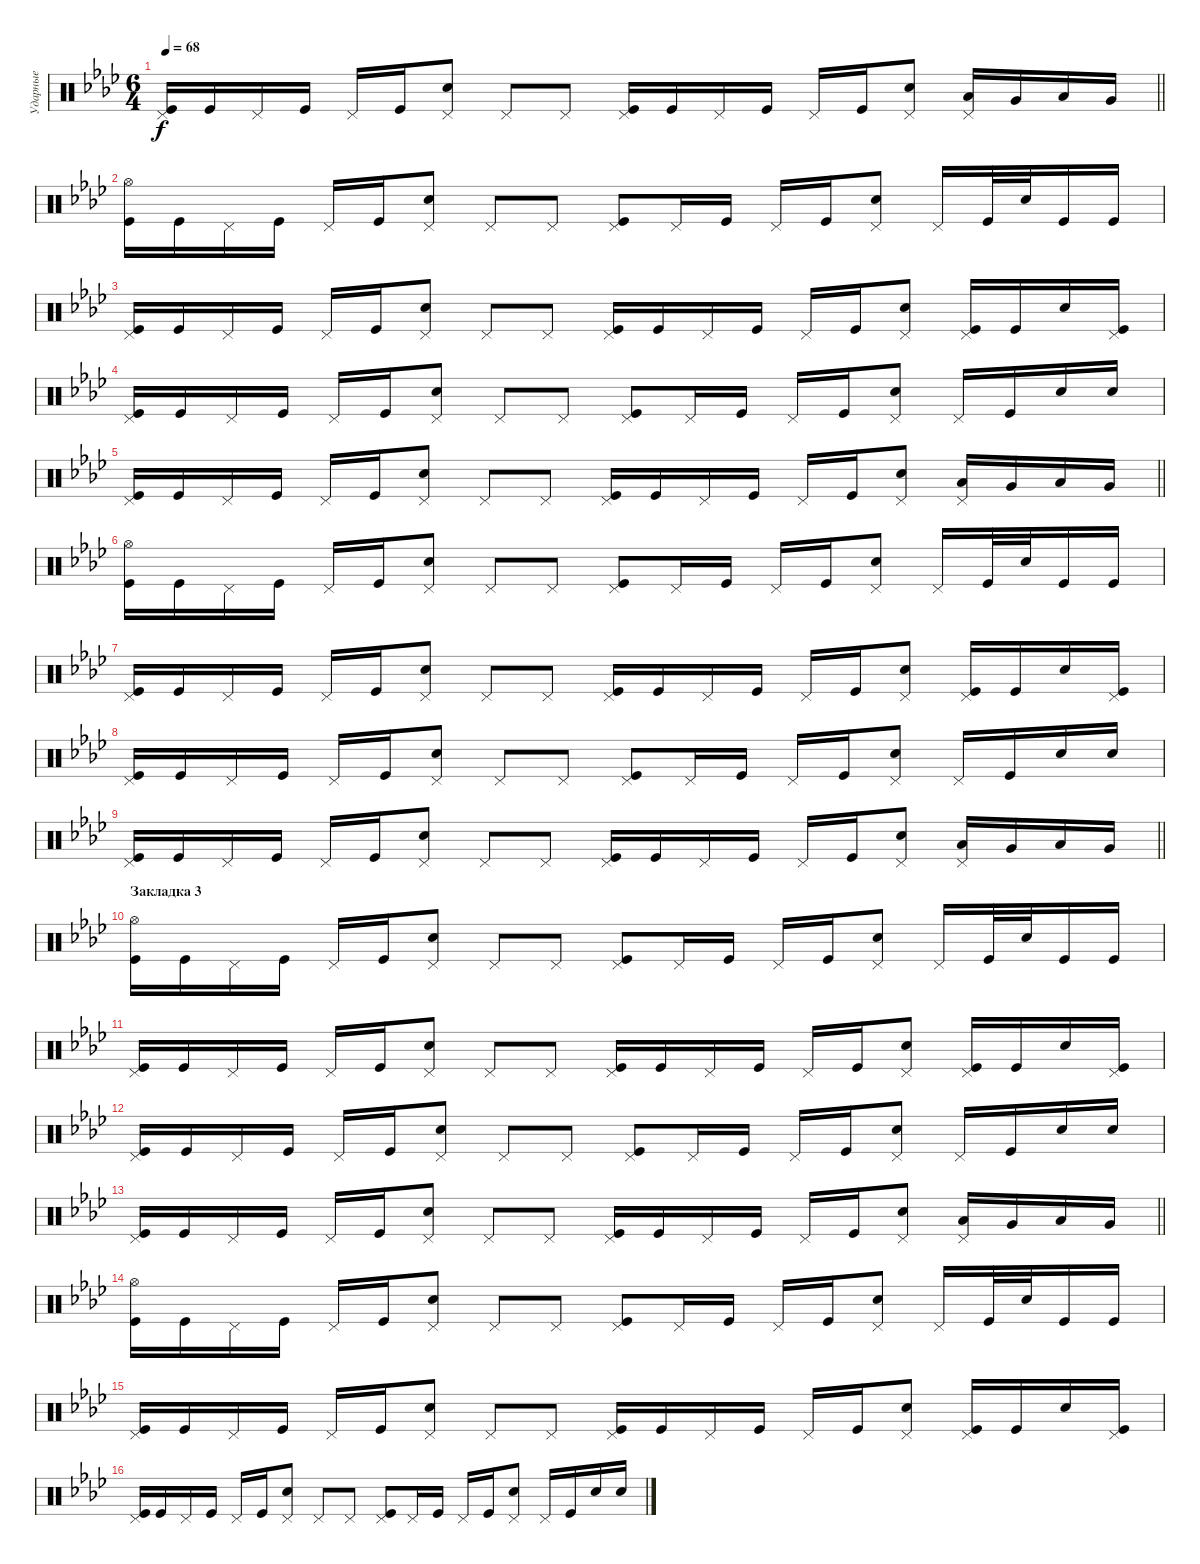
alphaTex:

\track ("Ударные" "Ударные") {instrument percussion}
\staff {score}
\articulation defaults
\ts (6 4)
\tempo 68
\clef neutral
\barLineRight lightlight
\ks fminor
("Kick (hit)" "Pedal Hi-Hat (hit)").16{dy f} "Kick (hit)".16 "Pedal Hi-Hat (hit)".16 "Kick (hit)".16 "Pedal Hi-Hat (hit)".16 "Kick (hit)".16 ("Snare (hit) 2" "Pedal Hi-Hat (hit)").8 "Pedal Hi-Hat (hit)".8 "Pedal Hi-Hat (hit)".8 ("Kick (hit)" "Pedal Hi-Hat (hit)").16 "Kick (hit)".16 "Pedal Hi-Hat (hit)".16 "Kick (hit)".16 "Pedal Hi-Hat (hit)".16 "Kick (hit)".16 ("Snare (hit) 2" "Pedal Hi-Hat (hit)").8 ("Low Floor Tom (hit)" "Pedal Hi-Hat (hit)").16 "Very Low Tom (hit)".16 "Low Tom (hit)".16 "Very Low Tom (hit)".16 |
("Kick (hit)" "Hi-Hat (open)").16 "Kick (hit)".16 "Pedal Hi-Hat (hit)".16 "Kick (hit)".16 "Pedal Hi-Hat (hit)".16 "Kick (hit)".16 ("Snare (hit) 2" "Pedal Hi-Hat (hit)").8 "Pedal Hi-Hat (hit)".8 "Pedal Hi-Hat (hit)".8 ("Kick (hit)" "Pedal Hi-Hat (hit)").8 "Pedal Hi-Hat (hit)".16 "Kick (hit)".16 "Pedal Hi-Hat (hit)".16 "Kick (hit)".16 ("Snare (hit) 2" "Pedal Hi-Hat (hit)").8 "Pedal Hi-Hat (hit)".16 "Kick (hit)".32 "Snare (hit) 2".32 "Kick (hit)".16 "Kick (hit)".16 |
("Kick (hit)" "Pedal Hi-Hat (hit)").16 "Kick (hit)".16 "Pedal Hi-Hat (hit)".16 "Kick (hit)".16 "Pedal Hi-Hat (hit)".16 "Kick (hit)".16 ("Snare (hit) 2" "Pedal Hi-Hat (hit)").8 "Pedal Hi-Hat (hit)".8 "Pedal Hi-Hat (hit)".8 ("Kick (hit)" "Pedal Hi-Hat (hit)").16 "Kick (hit)".16 "Pedal Hi-Hat (hit)".16 "Kick (hit)".16 "Pedal Hi-Hat (hit)".16 "Kick (hit)".16 ("Snare (hit) 2" "Pedal Hi-Hat (hit)").8 ("Kick (hit)" "Pedal Hi-Hat (hit)").16 "Kick (hit)".16 "Snare (hit) 2".16 ("Kick (hit)" "Pedal Hi-Hat (hit)").16 |
("Kick (hit)" "Pedal Hi-Hat (hit)").16 "Kick (hit)".16 "Pedal Hi-Hat (hit)".16 "Kick (hit)".16 "Pedal Hi-Hat (hit)".16 "Kick (hit)".16 ("Snare (hit) 2" "Pedal Hi-Hat (hit)").8 "Pedal Hi-Hat (hit)".8 "Pedal Hi-Hat (hit)".8 ("Kick (hit)" "Pedal Hi-Hat (hit)").8 "Pedal Hi-Hat (hit)".16 "Kick (hit)".16 "Pedal Hi-Hat (hit)".16 "Kick (hit)".16 ("Snare (hit) 2" "Pedal Hi-Hat (hit)").8 "Pedal Hi-Hat (hit)".16 "Kick (hit)".16 "Snare (hit) 2".16 "Snare (hit) 2".16 |
\barLineRight lightlight
("Kick (hit)" "Pedal Hi-Hat (hit)").16 "Kick (hit)".16 "Pedal Hi-Hat (hit)".16 "Kick (hit)".16 "Pedal Hi-Hat (hit)".16 "Kick (hit)".16 ("Snare (hit) 2" "Pedal Hi-Hat (hit)").8 "Pedal Hi-Hat (hit)".8 "Pedal Hi-Hat (hit)".8 ("Kick (hit)" "Pedal Hi-Hat (hit)").16 "Kick (hit)".16 "Pedal Hi-Hat (hit)".16 "Kick (hit)".16 "Pedal Hi-Hat (hit)".16 "Kick (hit)".16 ("Snare (hit) 2" "Pedal Hi-Hat (hit)").8 ("Low Floor Tom (hit)" "Pedal Hi-Hat (hit)").16 "Very Low Tom (hit)".16 "Low Tom (hit)".16 "Very Low Tom (hit)".16 |
("Kick (hit)" "Hi-Hat (open)").16 "Kick (hit)".16 "Pedal Hi-Hat (hit)".16 "Kick (hit)".16 "Pedal Hi-Hat (hit)".16 "Kick (hit)".16 ("Snare (hit) 2" "Pedal Hi-Hat (hit)").8 "Pedal Hi-Hat (hit)".8 "Pedal Hi-Hat (hit)".8 ("Kick (hit)" "Pedal Hi-Hat (hit)").8 "Pedal Hi-Hat (hit)".16 "Kick (hit)".16 "Pedal Hi-Hat (hit)".16 "Kick (hit)".16 ("Snare (hit) 2" "Pedal Hi-Hat (hit)").8 "Pedal Hi-Hat (hit)".16 "Kick (hit)".32 "Snare (hit) 2".32 "Kick (hit)".16 "Kick (hit)".16 |
("Kick (hit)" "Pedal Hi-Hat (hit)").16 "Kick (hit)".16 "Pedal Hi-Hat (hit)".16 "Kick (hit)".16 "Pedal Hi-Hat (hit)".16 "Kick (hit)".16 ("Snare (hit) 2" "Pedal Hi-Hat (hit)").8 "Pedal Hi-Hat (hit)".8 "Pedal Hi-Hat (hit)".8 ("Kick (hit)" "Pedal Hi-Hat (hit)").16 "Kick (hit)".16 "Pedal Hi-Hat (hit)".16 "Kick (hit)".16 "Pedal Hi-Hat (hit)".16 "Kick (hit)".16 ("Snare (hit) 2" "Pedal Hi-Hat (hit)").8 ("Kick (hit)" "Pedal Hi-Hat (hit)").16 "Kick (hit)".16 "Snare (hit) 2".16 ("Kick (hit)" "Pedal Hi-Hat (hit)").16 |
("Kick (hit)" "Pedal Hi-Hat (hit)").16 "Kick (hit)".16 "Pedal Hi-Hat (hit)".16 "Kick (hit)".16 "Pedal Hi-Hat (hit)".16 "Kick (hit)".16 ("Snare (hit) 2" "Pedal Hi-Hat (hit)").8 "Pedal Hi-Hat (hit)".8 "Pedal Hi-Hat (hit)".8 ("Kick (hit)" "Pedal Hi-Hat (hit)").8 "Pedal Hi-Hat (hit)".16 "Kick (hit)".16 "Pedal Hi-Hat (hit)".16 "Kick (hit)".16 ("Snare (hit) 2" "Pedal Hi-Hat (hit)").8 "Pedal Hi-Hat (hit)".16 "Kick (hit)".16 "Snare (hit) 2".16 "Snare (hit) 2".16 |
\barLineRight lightlight
("Kick (hit)" "Pedal Hi-Hat (hit)").16 "Kick (hit)".16 "Pedal Hi-Hat (hit)".16 "Kick (hit)".16 "Pedal Hi-Hat (hit)".16 "Kick (hit)".16 ("Snare (hit) 2" "Pedal Hi-Hat (hit)").8 "Pedal Hi-Hat (hit)".8 "Pedal Hi-Hat (hit)".8 ("Kick (hit)" "Pedal Hi-Hat (hit)").16 "Kick (hit)".16 "Pedal Hi-Hat (hit)".16 "Kick (hit)".16 "Pedal Hi-Hat (hit)".16 "Kick (hit)".16 ("Snare (hit) 2" "Pedal Hi-Hat (hit)").8 ("Low Floor Tom (hit)" "Pedal Hi-Hat (hit)").16 "Very Low Tom (hit)".16 "Low Tom (hit)".16 "Very Low Tom (hit)".16 |
\section ("" "Закладка 3")
("Kick (hit)" "Hi-Hat (open)").16 "Kick (hit)".16 "Pedal Hi-Hat (hit)".16 "Kick (hit)".16 "Pedal Hi-Hat (hit)".16 "Kick (hit)".16 ("Snare (hit) 2" "Pedal Hi-Hat (hit)").8 "Pedal Hi-Hat (hit)".8 "Pedal Hi-Hat (hit)".8 ("Kick (hit)" "Pedal Hi-Hat (hit)").8 "Pedal Hi-Hat (hit)".16 "Kick (hit)".16 "Pedal Hi-Hat (hit)".16 "Kick (hit)".16 ("Snare (hit) 2" "Pedal Hi-Hat (hit)").8 "Pedal Hi-Hat (hit)".16 "Kick (hit)".32 "Snare (hit) 2".32 "Kick (hit)".16 "Kick (hit)".16 |
("Kick (hit)" "Pedal Hi-Hat (hit)").16 "Kick (hit)".16 "Pedal Hi-Hat (hit)".16 "Kick (hit)".16 "Pedal Hi-Hat (hit)".16 "Kick (hit)".16 ("Snare (hit) 2" "Pedal Hi-Hat (hit)").8 "Pedal Hi-Hat (hit)".8 "Pedal Hi-Hat (hit)".8 ("Kick (hit)" "Pedal Hi-Hat (hit)").16 "Kick (hit)".16 "Pedal Hi-Hat (hit)".16 "Kick (hit)".16 "Pedal Hi-Hat (hit)".16 "Kick (hit)".16 ("Snare (hit) 2" "Pedal Hi-Hat (hit)").8 ("Kick (hit)" "Pedal Hi-Hat (hit)").16 "Kick (hit)".16 "Snare (hit) 2".16 ("Kick (hit)" "Pedal Hi-Hat (hit)").16 |
("Kick (hit)" "Pedal Hi-Hat (hit)").16 "Kick (hit)".16 "Pedal Hi-Hat (hit)".16 "Kick (hit)".16 "Pedal Hi-Hat (hit)".16 "Kick (hit)".16 ("Snare (hit) 2" "Pedal Hi-Hat (hit)").8 "Pedal Hi-Hat (hit)".8 "Pedal Hi-Hat (hit)".8 ("Kick (hit)" "Pedal Hi-Hat (hit)").8 "Pedal Hi-Hat (hit)".16 "Kick (hit)".16 "Pedal Hi-Hat (hit)".16 "Kick (hit)".16 ("Snare (hit) 2" "Pedal Hi-Hat (hit)").8 "Pedal Hi-Hat (hit)".16 "Kick (hit)".16 "Snare (hit) 2".16 "Snare (hit) 2".16 |
\barLineRight lightlight
("Kick (hit)" "Pedal Hi-Hat (hit)").16 "Kick (hit)".16 "Pedal Hi-Hat (hit)".16 "Kick (hit)".16 "Pedal Hi-Hat (hit)".16 "Kick (hit)".16 ("Snare (hit) 2" "Pedal Hi-Hat (hit)").8 "Pedal Hi-Hat (hit)".8 "Pedal Hi-Hat (hit)".8 ("Kick (hit)" "Pedal Hi-Hat (hit)").16 "Kick (hit)".16 "Pedal Hi-Hat (hit)".16 "Kick (hit)".16 "Pedal Hi-Hat (hit)".16 "Kick (hit)".16 ("Snare (hit) 2" "Pedal Hi-Hat (hit)").8 ("Low Floor Tom (hit)" "Pedal Hi-Hat (hit)").16 "Very Low Tom (hit)".16 "Low Tom (hit)".16 "Very Low Tom (hit)".16 |
("Kick (hit)" "Hi-Hat (open)").16 "Kick (hit)".16 "Pedal Hi-Hat (hit)".16 "Kick (hit)".16 "Pedal Hi-Hat (hit)".16 "Kick (hit)".16 ("Snare (hit) 2" "Pedal Hi-Hat (hit)").8 "Pedal Hi-Hat (hit)".8 "Pedal Hi-Hat (hit)".8 ("Kick (hit)" "Pedal Hi-Hat (hit)").8 "Pedal Hi-Hat (hit)".16 "Kick (hit)".16 "Pedal Hi-Hat (hit)".16 "Kick (hit)".16 ("Snare (hit) 2" "Pedal Hi-Hat (hit)").8 "Pedal Hi-Hat (hit)".16 "Kick (hit)".32 "Snare (hit) 2".32 "Kick (hit)".16 "Kick (hit)".16 |
("Kick (hit)" "Pedal Hi-Hat (hit)").16 "Kick (hit)".16 "Pedal Hi-Hat (hit)".16 "Kick (hit)".16 "Pedal Hi-Hat (hit)".16 "Kick (hit)".16 ("Snare (hit) 2" "Pedal Hi-Hat (hit)").8 "Pedal Hi-Hat (hit)".8 "Pedal Hi-Hat (hit)".8 ("Kick (hit)" "Pedal Hi-Hat (hit)").16 "Kick (hit)".16 "Pedal Hi-Hat (hit)".16 "Kick (hit)".16 "Pedal Hi-Hat (hit)".16 "Kick (hit)".16 ("Snare (hit) 2" "Pedal Hi-Hat (hit)").8 ("Kick (hit)" "Pedal Hi-Hat (hit)").16 "Kick (hit)".16 "Snare (hit) 2".16 ("Kick (hit)" "Pedal Hi-Hat (hit)").16 |
("Kick (hit)" "Pedal Hi-Hat (hit)").16 "Kick (hit)".16 "Pedal Hi-Hat (hit)".16 "Kick (hit)".16 "Pedal Hi-Hat (hit)".16 "Kick (hit)".16 ("Snare (hit) 2" "Pedal Hi-Hat (hit)").8 "Pedal Hi-Hat (hit)".8 "Pedal Hi-Hat (hit)".8 ("Kick (hit)" "Pedal Hi-Hat (hit)").8 "Pedal Hi-Hat (hit)".16 "Kick (hit)".16 "Pedal Hi-Hat (hit)".16 "Kick (hit)".16 ("Snare (hit) 2" "Pedal Hi-Hat (hit)").8 "Pedal Hi-Hat (hit)".16 "Kick (hit)".16 "Snare (hit) 2".16 "Snare (hit) 2".16
